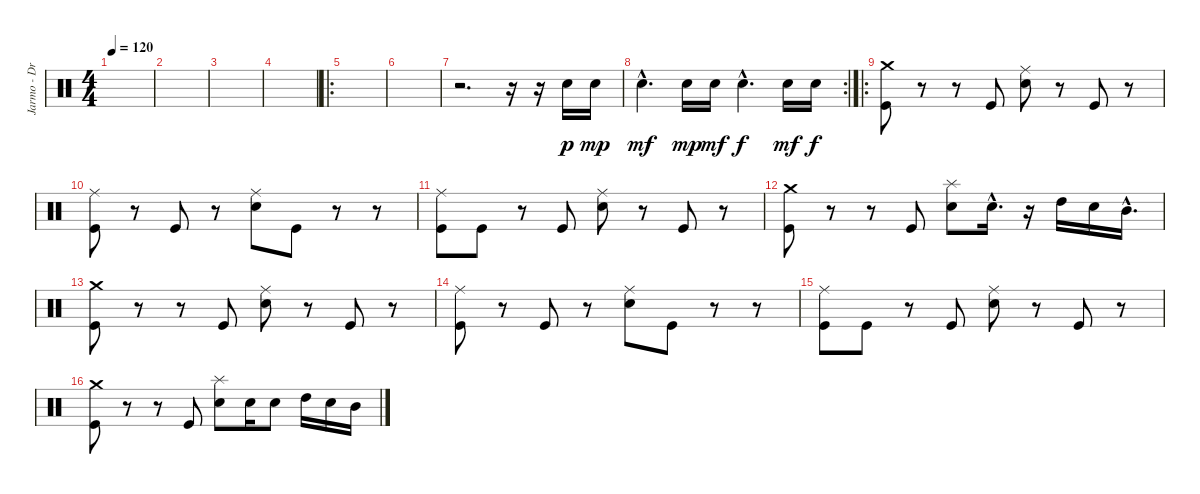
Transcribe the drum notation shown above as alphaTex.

\track ("Jarmo - Drums" "Jarmo - Dr") {instrument percussion}
\staff {score}
\articulation defaults
\ts (4 4)
\tempo 120
\clef neutral
\ks c
|
|
|
|
\ro
|
|
r.2{d} r.16 r.16 "Snare (hit) 2".16{dy p} "Snare (hit) 2".16{dy mp} |
\rc 2 "Snare (hit) 2"{hac}.4{d dy mf} "Snare (hit) 2".16{dy mp} "Snare (hit) 2".16{dy mf} "Snare (hit) 2"{hac}.4{d dy f} "Snare (hit) 2".16{dy mf} "Snare (hit) 2".16{dy f}
|
\ro
("Kick (hit)" "Crash medium (hit)").8 r.8 r.8 "Kick (hit)".8 ("Electric Snare (hit)" "Ride (middle)").8 r.8 "Kick (hit)".8 r.8 |
("Kick (hit)" "Ride (middle)").8 r.8 "Kick (hit)".8 r.8 ("Electric Snare (hit)" "Ride (middle)").8 "Kick (hit)".8 r.8 r.8 |
("Kick (hit)" "Ride (middle)").8 "Kick (hit)".8 r.8 "Kick (hit)".8 ("Electric Snare (hit)" "Ride (middle)").8 r.8 "Kick (hit)".8 r.8 |
("Kick (hit)" "Crash medium (hit)").8 r.8 r.8 "Kick (hit)".8 ("Electric Snare (hit)" "Splash (hit)").8 "Electric Snare (hit)"{hac}.16{d} r.16 "High Tom (hit)".16 "Electric Snare (hit)".16 "Mid Tom (hit)"{hac}.16{d} |
("Kick (hit)" "Crash medium (hit)").8 r.8 r.8 "Kick (hit)".8 ("Electric Snare (hit)" "Ride (middle)").8 r.8 "Kick (hit)".8 r.8 |
("Kick (hit)" "Ride (middle)").8 r.8 "Kick (hit)".8 r.8 ("Electric Snare (hit)" "Ride (middle)").8 "Kick (hit)".8 r.8 r.8 |
("Kick (hit)" "Ride (middle)").8 "Kick (hit)".8 r.8 "Kick (hit)".8 ("Electric Snare (hit)" "Ride (middle)").8 r.8 "Kick (hit)".8 r.8 |
("Kick (hit)" "Crash medium (hit)").8 r.8 r.8 "Kick (hit)".8 ("Electric Snare (hit)" "Splash (hit)").8 "Electric Snare (hit)".16 "Electric Snare (hit)".8 "High Tom (hit)".16 "Electric Snare (hit)".16 "Mid Tom (hit)".16
